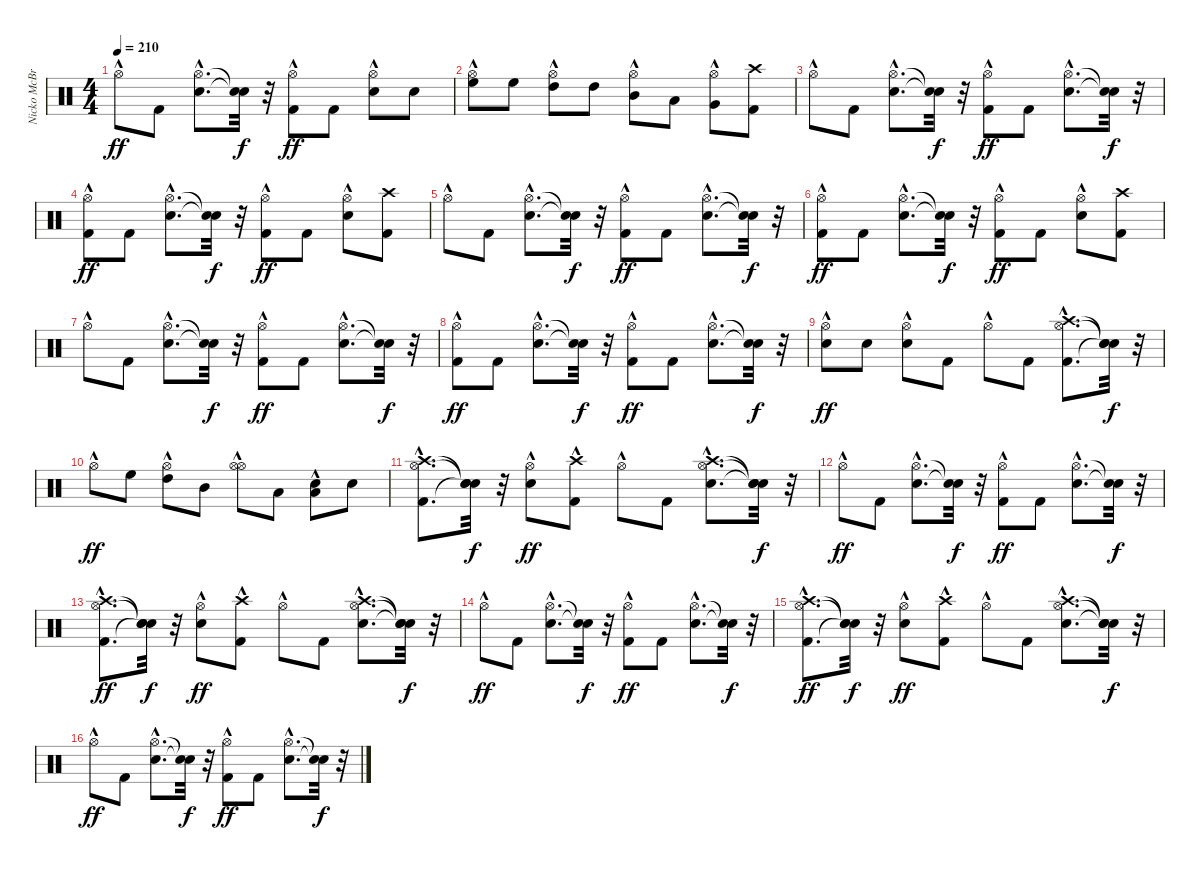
\track ("Nicko McBrain" "Nicko McBr") {instrument percussion}
\staff {score}
\articulation defaults
\ts (4 4)
\tempo 210
\clef neutral
\ks c "Hi-Hat (open)"{hac}.8{dy ff} "Kick (hit) 2".8
("Snare (hit) 2"{hac} "Hi-Hat (open)"{hac}).8{d} ("Snare (hit)"{t} "Snare (hit)"{t}).32{dy f} r.32 ("Kick (hit) 2" "Hi-Hat (open)"{hac}).8{dy ff} "Kick (hit) 2".8 ("Snare (hit) 2" "Hi-Hat (open)"{hac}).8 "Snare (hit) 2".8 |
("Hi-Hat (open)"{hac} "High Floor Tom (hit)").8 "High Floor Tom (hit)".8 ("Hi-Hat (open)"{hac} "High Tom (hit)").8 "High Tom (hit)".8 ("Hi-Hat (open)"{hac} "Mid Tom (hit)").8 "Low Tom (hit)".8 ("Very Low Tom (hit)" "Hi-Hat (open)"{hac}).8 ("Kick (hit) 2" "Crash high (hit)").8 |
"Hi-Hat (open)"{hac}.8 "Kick (hit) 2".8 ("Snare (hit) 2"{hac} "Hi-Hat (open)"{hac}).8{d} ("Snare (hit)"{t} "Snare (hit)"{t}).32{dy f} r.32 ("Kick (hit) 2" "Hi-Hat (open)"{hac}).8{dy ff} "Kick (hit) 2".8 ("Snare (hit) 2"{hac} "Hi-Hat (open)"{hac}).8{d} ("Snare (hit)"{t} "Snare (hit)"{t}).32{dy f} r.32 |
("Kick (hit) 2" "Hi-Hat (open)"{hac}).8{dy ff} "Kick (hit) 2".8 ("Snare (hit) 2"{hac} "Hi-Hat (open)"{hac}).8{d} ("Snare (hit)"{t} "Snare (hit)"{t}).32{dy f} r.32 ("Kick (hit) 2" "Hi-Hat (open)"{hac}).8{dy ff} "Kick (hit) 2".8 ("Snare (hit) 2" "Hi-Hat (open)"{hac}).8 ("Kick (hit) 2" "Crash high (hit)").8 |
"Hi-Hat (open)"{hac}.8 "Kick (hit) 2".8 ("Snare (hit) 2"{hac} "Hi-Hat (open)"{hac}).8{d} ("Snare (hit)"{t} "Snare (hit)"{t}).32{dy f} r.32 ("Kick (hit) 2" "Hi-Hat (open)"{hac}).8{dy ff} "Kick (hit) 2".8 ("Snare (hit) 2"{hac} "Hi-Hat (open)"{hac}).8{d} ("Snare (hit)"{t} "Snare (hit)"{t}).32{dy f} r.32 |
("Kick (hit) 2" "Hi-Hat (open)"{hac}).8{dy ff} "Kick (hit) 2".8 ("Snare (hit) 2"{hac} "Hi-Hat (open)"{hac}).8{d} ("Snare (hit)"{t} "Snare (hit)"{t}).32{dy f} r.32 ("Kick (hit) 2" "Hi-Hat (open)"{hac}).8{dy ff} "Kick (hit) 2".8 ("Snare (hit) 2" "Hi-Hat (open)"{hac}).8 ("Kick (hit) 2" "Crash high (hit)").8 |
"Hi-Hat (open)"{hac}.8 "Kick (hit) 2".8 ("Snare (hit) 2"{hac} "Hi-Hat (open)"{hac}).8{d} ("Snare (hit)"{t} "Snare (hit)"{t}).32{dy f} r.32 ("Kick (hit) 2" "Hi-Hat (open)"{hac}).8{dy ff} "Kick (hit) 2".8 ("Snare (hit) 2"{hac} "Hi-Hat (open)"{hac}).8{d} ("Snare (hit)"{t} "Snare (hit)"{t}).32{dy f} r.32 |
("Kick (hit) 2" "Hi-Hat (open)"{hac}).8{dy ff} "Kick (hit) 2".8 ("Snare (hit) 2"{hac} "Hi-Hat (open)"{hac}).8{d} ("Snare (hit)"{t} "Snare (hit)"{t}).32{dy f} r.32 ("Kick (hit) 2" "Hi-Hat (open)"{hac}).8{dy ff} "Kick (hit) 2".8 ("Snare (hit) 2"{hac} "Hi-Hat (open)"{hac}).8{d} ("Snare (hit)"{t} "Snare (hit)"{t}).32{dy f} r.32 |
("Snare (hit) 2" "Hi-Hat (open)"{hac}).8{dy ff} "Snare (hit) 2".8 ("Snare (hit) 2" "Hi-Hat (open)"{hac}).8 "Kick (hit) 2".8 "Hi-Hat (open)"{hac}.8 "Kick (hit) 2".8 ("Kick (hit) 2"{hac} "Hi-Hat (open)"{hac} "Crash high (hit)"{hac}).8{d} ("Snare (hit)"{t} "Snare (hit)"{t} "Snare (hit)"{t}).32{dy f} r.32 |
"Hi-Hat (open)"{hac}.8{dy ff} "High Floor Tom (hit)".8 ("Hi-Hat (open)"{hac} "High Tom (hit)").8 "Mid Tom (hit)".8 ("Hi-Hat (open)"{hac} "Hi-Hat (open)"{hac}).8 "Low Tom (hit)".8 ("Snare (hit) 2" "Low Tom (hit)"{hac}).8 "Snare (hit) 2".8 |
("Kick (hit) 2"{hac} "Hi-Hat (open)"{hac} "Crash high (hit)"{hac}).8{d} ("Snare (hit)"{t} "Snare (hit)"{t} "Snare (hit)"{t}).32{dy f} r.32 ("Snare (hit) 2" "Hi-Hat (open)"{hac}).8{dy ff} ("Kick (hit) 2" "Crash high (hit)"{hac}).8 "Hi-Hat (open)"{hac}.8 "Kick (hit) 2".8 ("Snare (hit) 2"{hac} "Hi-Hat (open)"{hac} "Crash high (hit)"{hac}).8{d} ("Snare (hit)"{t} "Snare (hit)"{t} "Snare (hit)"{t}).32{dy f} r.32 |
"Hi-Hat (open)"{hac}.8{dy ff} "Kick (hit) 2".8 ("Snare (hit) 2"{hac} "Hi-Hat (open)"{hac}).8{d} ("Snare (hit)"{t} "Snare (hit)"{t}).32{dy f} r.32 ("Kick (hit) 2" "Hi-Hat (open)"{hac}).8{dy ff} "Kick (hit) 2".8 ("Snare (hit) 2"{hac} "Hi-Hat (open)"{hac}).8{d} ("Snare (hit)"{t} "Snare (hit)"{t}).32{dy f} r.32 |
("Kick (hit) 2"{hac} "Hi-Hat (open)"{hac} "Crash high (hit)"{hac}).8{d dy ff} ("Snare (hit)"{t} "Snare (hit)"{t} "Snare (hit)"{t}).32{dy f} r.32 ("Snare (hit) 2" "Hi-Hat (open)"{hac}).8{dy ff} ("Kick (hit) 2" "Crash high (hit)"{hac}).8 "Hi-Hat (open)"{hac}.8 "Kick (hit) 2".8 ("Snare (hit) 2"{hac} "Hi-Hat (open)"{hac} "Crash high (hit)"{hac}).8{d} ("Snare (hit)"{t} "Snare (hit)"{t} "Snare (hit)"{t}).32{dy f} r.32 |
"Hi-Hat (open)"{hac}.8{dy ff} "Kick (hit) 2".8 ("Snare (hit) 2"{hac} "Hi-Hat (open)"{hac}).8{d} ("Snare (hit)"{t} "Snare (hit)"{t}).32{dy f} r.32 ("Kick (hit) 2" "Hi-Hat (open)"{hac}).8{dy ff} "Kick (hit) 2".8 ("Snare (hit) 2"{hac} "Hi-Hat (open)"{hac}).8{d} ("Snare (hit)"{t} "Snare (hit)"{t}).32{dy f} r.32 |
("Kick (hit) 2"{hac} "Hi-Hat (open)"{hac} "Crash high (hit)"{hac}).8{d dy ff} ("Snare (hit)"{t} "Snare (hit)"{t} "Snare (hit)"{t}).32{dy f} r.32 ("Snare (hit) 2" "Hi-Hat (open)"{hac}).8{dy ff} ("Kick (hit) 2" "Crash high (hit)"{hac}).8 "Hi-Hat (open)"{hac}.8 "Kick (hit) 2".8 ("Snare (hit) 2"{hac} "Hi-Hat (open)"{hac} "Crash high (hit)"{hac}).8{d} ("Snare (hit)"{t} "Snare (hit)"{t} "Snare (hit)"{t}).32{dy f} r.32 |
"Hi-Hat (open)"{hac}.8{dy ff} "Kick (hit) 2".8 ("Snare (hit) 2"{hac} "Hi-Hat (open)"{hac}).8{d} ("Snare (hit)"{t} "Snare (hit)"{t}).32{dy f} r.32 ("Kick (hit) 2" "Hi-Hat (open)"{hac}).8{dy ff} "Kick (hit) 2".8 ("Snare (hit) 2"{hac} "Hi-Hat (open)"{hac}).8{d} ("Snare (hit)"{t} "Snare (hit)"{t}).32{dy f} r.32
